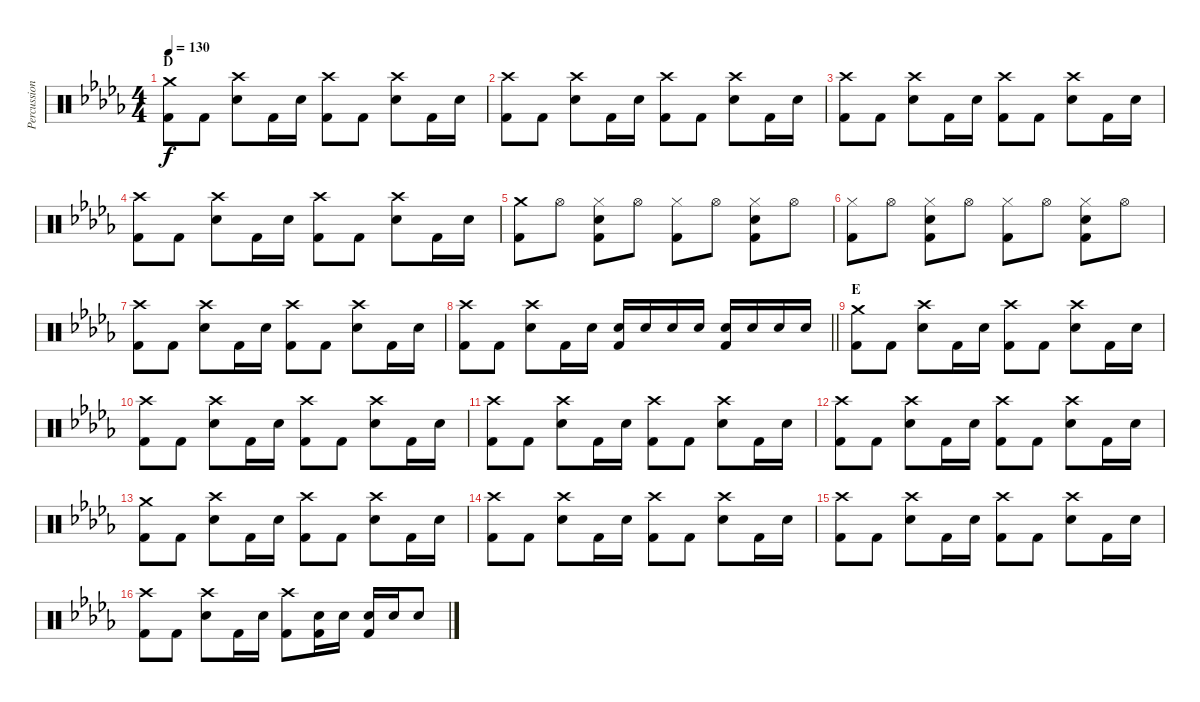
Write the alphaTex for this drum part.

\track ("Percussion" "Percussion") {instrument percussion}
\staff {score}
\articulation defaults
\ts (4 4)
\section ("" "D")
\tempo 130
\clef neutral
\ks db
("Crash medium (hit)" "Kick (hit) 2").8{dy f} "Kick (hit) 2".8 ("Crash high (hit)" "Electric Snare (hit)").8 "Kick (hit) 2".16 "Electric Snare (hit)".16 ("Crash high (hit)" "Kick (hit) 2").8 "Kick (hit) 2".8 ("Crash high (hit)" "Electric Snare (hit)").8 "Kick (hit) 2".16 "Electric Snare (hit)".16 |
("Crash high (hit)" "Kick (hit) 2").8 "Kick (hit) 2".8 ("Crash high (hit)" "Electric Snare (hit)").8 "Kick (hit) 2".16 "Electric Snare (hit)".16 ("Crash high (hit)" "Kick (hit) 2").8 "Kick (hit) 2".8 ("Crash high (hit)" "Electric Snare (hit)").8 "Kick (hit) 2".16 "Electric Snare (hit)".16 |
("Crash high (hit)" "Kick (hit) 2").8 "Kick (hit) 2".8 ("Crash high (hit)" "Electric Snare (hit)").8 "Kick (hit) 2".16 "Electric Snare (hit)".16 ("Crash high (hit)" "Kick (hit) 2").8 "Kick (hit) 2".8 ("Crash high (hit)" "Electric Snare (hit)").8 "Kick (hit) 2".16 "Electric Snare (hit)".16 |
("Crash high (hit)" "Kick (hit) 2").8 "Kick (hit) 2".8 ("Crash high (hit)" "Electric Snare (hit)").8 "Kick (hit) 2".16 "Electric Snare (hit)".16 ("Crash high (hit)" "Kick (hit) 2").8 "Kick (hit) 2".8 ("Crash high (hit)" "Electric Snare (hit)").8 "Kick (hit) 2".16 "Electric Snare (hit)".16 |
("Crash medium (hit)" "Kick (hit) 2").8 "Hi-Hat (open)".8 ("Hi-Hat (closed)" "Electric Snare (hit)" "Kick (hit) 2").8 "Hi-Hat (open)".8 ("Hi-Hat (closed)" "Kick (hit) 2").8 "Hi-Hat (open)".8 ("Hi-Hat (closed)" "Electric Snare (hit)" "Kick (hit) 2").8 "Hi-Hat (open)".8 |
("Hi-Hat (closed)" "Kick (hit) 2").8 "Hi-Hat (open)".8 ("Hi-Hat (closed)" "Electric Snare (hit)" "Kick (hit) 2").8 "Hi-Hat (open)".8 ("Hi-Hat (closed)" "Kick (hit) 2").8 "Hi-Hat (open)".8 ("Hi-Hat (closed)" "Electric Snare (hit)" "Kick (hit) 2").8 "Hi-Hat (open)".8 |
("Crash high (hit)" "Kick (hit) 2").8 "Kick (hit) 2".8 ("Crash high (hit)" "Electric Snare (hit)").8 "Kick (hit) 2".16 "Electric Snare (hit)".16 ("Crash high (hit)" "Kick (hit) 2").8 "Kick (hit) 2".8 ("Crash high (hit)" "Electric Snare (hit)").8 "Kick (hit) 2".16 "Electric Snare (hit)".16 |
\barLineRight lightlight
("Crash high (hit)" "Kick (hit) 2").8 "Kick (hit) 2".8 ("Crash high (hit)" "Electric Snare (hit)").8 "Kick (hit) 2".16 "Electric Snare (hit)".16 ("Electric Snare (hit)" "Kick (hit) 2").16 "Electric Snare (hit)".16 "Electric Snare (hit)".16 "Electric Snare (hit)".16 ("Electric Snare (hit)" "Kick (hit) 2").16 "Electric Snare (hit)".16 "Electric Snare (hit)".16 "Electric Snare (hit)".16 |
\section ("" "E")
("Crash medium (hit)" "Kick (hit) 2").8 "Kick (hit) 2".8 ("Crash high (hit)" "Electric Snare (hit)").8 "Kick (hit) 2".16 "Electric Snare (hit)".16 ("Crash high (hit)" "Kick (hit) 2").8 "Kick (hit) 2".8 ("Crash high (hit)" "Electric Snare (hit)").8 "Kick (hit) 2".16 "Electric Snare (hit)".16 |
("Crash high (hit)" "Kick (hit) 2").8 "Kick (hit) 2".8 ("Crash high (hit)" "Electric Snare (hit)").8 "Kick (hit) 2".16 "Electric Snare (hit)".16 ("Crash high (hit)" "Kick (hit) 2").8 "Kick (hit) 2".8 ("Crash high (hit)" "Electric Snare (hit)").8 "Kick (hit) 2".16 "Electric Snare (hit)".16 |
("Crash high (hit)" "Kick (hit) 2").8 "Kick (hit) 2".8 ("Crash high (hit)" "Electric Snare (hit)").8 "Kick (hit) 2".16 "Electric Snare (hit)".16 ("Crash high (hit)" "Kick (hit) 2").8 "Kick (hit) 2".8 ("Crash high (hit)" "Electric Snare (hit)").8 "Kick (hit) 2".16 "Electric Snare (hit)".16 |
("Crash high (hit)" "Kick (hit) 2").8 "Kick (hit) 2".8 ("Crash high (hit)" "Electric Snare (hit)").8 "Kick (hit) 2".16 "Electric Snare (hit)".16 ("Crash high (hit)" "Kick (hit) 2").8 "Kick (hit) 2".8 ("Crash high (hit)" "Electric Snare (hit)").8 "Kick (hit) 2".16 "Electric Snare (hit)".16 |
("Crash medium (hit)" "Kick (hit) 2").8 "Kick (hit) 2".8 ("Crash high (hit)" "Electric Snare (hit)").8 "Kick (hit) 2".16 "Electric Snare (hit)".16 ("Crash high (hit)" "Kick (hit) 2").8 "Kick (hit) 2".8 ("Crash high (hit)" "Electric Snare (hit)").8 "Kick (hit) 2".16 "Electric Snare (hit)".16 |
("Crash high (hit)" "Kick (hit) 2").8 "Kick (hit) 2".8 ("Crash high (hit)" "Electric Snare (hit)").8 "Kick (hit) 2".16 "Electric Snare (hit)".16 ("Crash high (hit)" "Kick (hit) 2").8 "Kick (hit) 2".8 ("Crash high (hit)" "Electric Snare (hit)").8 "Kick (hit) 2".16 "Electric Snare (hit)".16 |
("Crash high (hit)" "Kick (hit) 2").8 "Kick (hit) 2".8 ("Crash high (hit)" "Electric Snare (hit)").8 "Kick (hit) 2".16 "Electric Snare (hit)".16 ("Crash high (hit)" "Kick (hit) 2").8 "Kick (hit) 2".8 ("Crash high (hit)" "Electric Snare (hit)").8 "Kick (hit) 2".16 "Electric Snare (hit)".16 |
("Crash high (hit)" "Kick (hit) 2").8 "Kick (hit) 2".8 ("Crash high (hit)" "Electric Snare (hit)").8 "Kick (hit) 2".16 "Electric Snare (hit)".16 ("Crash high (hit)" "Kick (hit) 2").8 ("Electric Snare (hit)" "Kick (hit) 2").16 "Electric Snare (hit)".16 ("Electric Snare (hit)" "Kick (hit) 2").16 "Electric Snare (hit)".16 "Electric Snare (hit)".8
